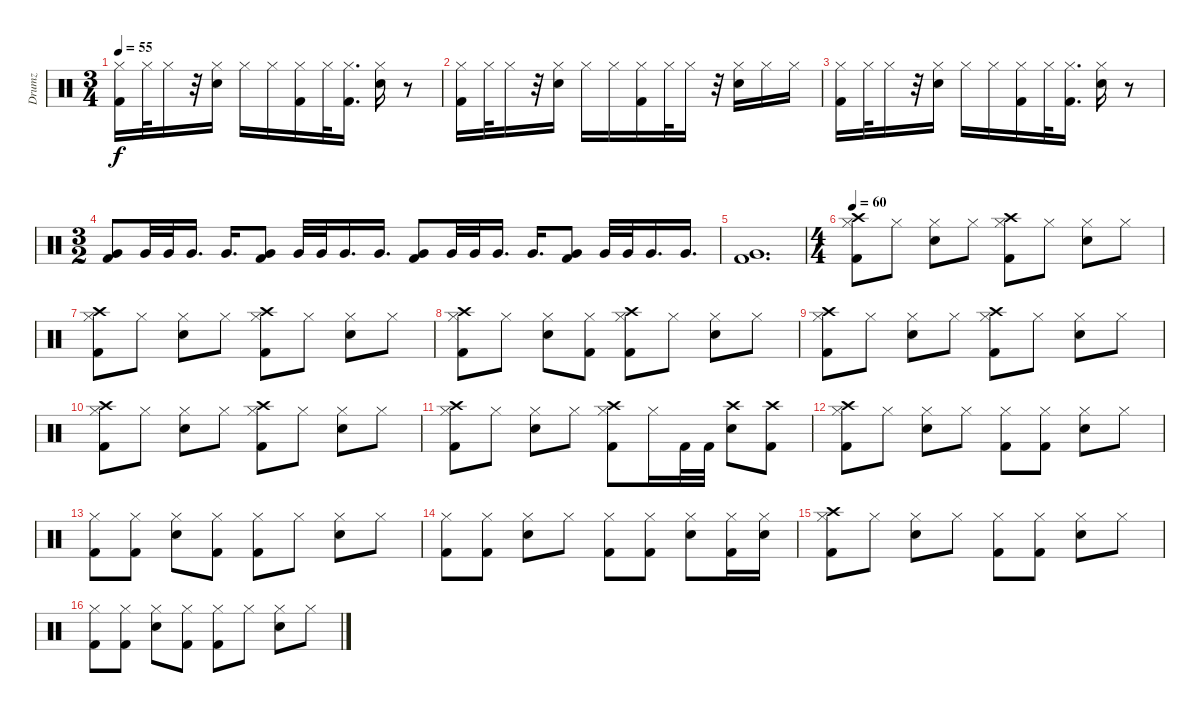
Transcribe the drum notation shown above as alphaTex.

\track ("Drumz" "Drumz") {instrument percussion}
\staff {score}
\articulation defaults
\ts (3 4)
\tempo 55
\clef neutral
\ks c
("Hi-Hat (closed)" "Kick (hit) 2").16{dy f} "Hi-Hat (closed)".32 "Hi-Hat (closed)".16 r.32 ("Hi-Hat (closed)" "Snare (hit) 2").16 "Hi-Hat (closed)".16 "Hi-Hat (closed)".16 ("Hi-Hat (closed)" "Kick (hit) 2").16 "Hi-Hat (closed)".32 ("Hi-Hat (closed)" "Kick (hit) 2").16{d} ("Hi-Hat (closed)" "Snare (hit) 2").16 r.8 |
("Hi-Hat (closed)" "Kick (hit) 2").16 "Hi-Hat (closed)".32 "Hi-Hat (closed)".16 r.32 ("Hi-Hat (closed)" "Snare (hit) 2").16 "Hi-Hat (closed)".16 "Hi-Hat (closed)".16 ("Hi-Hat (closed)" "Kick (hit) 2").16 "Hi-Hat (closed)".32 "Hi-Hat (closed)".16 r.32 ("Hi-Hat (closed)" "Snare (hit) 2").16 "Hi-Hat (closed)".16 "Hi-Hat (closed)".16 |
("Hi-Hat (closed)" "Kick (hit) 2").16 "Hi-Hat (closed)".32 "Hi-Hat (closed)".16 r.32 ("Hi-Hat (closed)" "Snare (hit) 2").16 "Hi-Hat (closed)".16 "Hi-Hat (closed)".16 ("Hi-Hat (closed)" "Kick (hit) 2").16 "Hi-Hat (closed)".32 ("Hi-Hat (closed)" "Kick (hit) 2").16{d} ("Hi-Hat (closed)" "Snare (hit) 2").16 r.8 |
\ts (3 2)
("Very Low Tom (hit)" "Kick (hit) 2").8 "Very Low Tom (hit)".32 "Very Low Tom (hit)".32 "Very Low Tom (hit)".16{d} "Very Low Tom (hit)".16{d} ("Very Low Tom (hit)" "Kick (hit) 2").8 "Very Low Tom (hit)".32 "Very Low Tom (hit)".32 "Very Low Tom (hit)".16{d} "Very Low Tom (hit)".16{d} ("Very Low Tom (hit)" "Kick (hit) 2").8 "Very Low Tom (hit)".32 "Very Low Tom (hit)".32 "Very Low Tom (hit)".16{d} "Very Low Tom (hit)".16{d} ("Very Low Tom (hit)" "Kick (hit) 2").8 "Very Low Tom (hit)".32 "Very Low Tom (hit)".32 "Very Low Tom (hit)".16{d} "Very Low Tom (hit)".16{d} |
("Very Low Tom (hit)" "Kick (hit) 2").1{d} |
\ts (4 4)
\tempo 60
("Hi-Hat (closed)" "Crash high (hit)" "Kick (hit) 2").8 "Hi-Hat (closed)".8 ("Hi-Hat (closed)" "Snare (hit) 2").8 "Hi-Hat (closed)".8 ("Hi-Hat (closed)" "Crash high (hit)" "Kick (hit) 2").8 "Hi-Hat (closed)".8 ("Hi-Hat (closed)" "Snare (hit) 2").8 "Hi-Hat (closed)".8 |
("Hi-Hat (closed)" "Crash high (hit)" "Kick (hit) 2").8 "Hi-Hat (closed)".8 ("Hi-Hat (closed)" "Snare (hit) 2").8 "Hi-Hat (closed)".8 ("Hi-Hat (closed)" "Crash high (hit)" "Kick (hit) 2").8 "Hi-Hat (closed)".8 ("Hi-Hat (closed)" "Snare (hit) 2").8 "Hi-Hat (closed)".8 |
("Hi-Hat (closed)" "Crash high (hit)" "Kick (hit) 2").8 "Hi-Hat (closed)".8 ("Hi-Hat (closed)" "Snare (hit) 2").8 ("Hi-Hat (closed)" "Kick (hit) 2").8 ("Hi-Hat (closed)" "Crash high (hit)" "Kick (hit) 2").8 "Hi-Hat (closed)".8 ("Hi-Hat (closed)" "Snare (hit) 2").8 "Hi-Hat (closed)".8 |
("Hi-Hat (closed)" "Crash high (hit)" "Kick (hit) 2").8 "Hi-Hat (closed)".8 ("Hi-Hat (closed)" "Snare (hit) 2").8 "Hi-Hat (closed)".8 ("Hi-Hat (closed)" "Crash high (hit)" "Kick (hit) 2").8 "Hi-Hat (closed)".8 ("Hi-Hat (closed)" "Snare (hit) 2").8 "Hi-Hat (closed)".8 |
("Hi-Hat (closed)" "Crash high (hit)" "Kick (hit) 2").8 "Hi-Hat (closed)".8 ("Hi-Hat (closed)" "Snare (hit) 2").8 "Hi-Hat (closed)".8 ("Hi-Hat (closed)" "Crash high (hit)" "Kick (hit) 2").8 "Hi-Hat (closed)".8 ("Hi-Hat (closed)" "Snare (hit) 2").8 "Hi-Hat (closed)".8 |
("Hi-Hat (closed)" "Crash high (hit)" "Kick (hit) 2").8 "Hi-Hat (closed)".8 ("Hi-Hat (closed)" "Snare (hit) 2").8 "Hi-Hat (closed)".8 ("Hi-Hat (closed)" "Crash high (hit)" "Kick (hit) 2").8 "Hi-Hat (closed)".16 "Kick (hit) 2".32 "Kick (hit) 2".32 ("Crash high (hit)" "Snare (hit) 2").8 ("Crash high (hit)" "Kick (hit) 2").8 |
("Hi-Hat (closed)" "Crash high (hit)" "Kick (hit) 2").8 "Hi-Hat (closed)".8 ("Hi-Hat (closed)" "Snare (hit) 2").8 "Hi-Hat (closed)".8 ("Hi-Hat (closed)" "Kick (hit) 2").8 ("Hi-Hat (closed)" "Kick (hit) 2").8 ("Hi-Hat (closed)" "Snare (hit) 2").8 "Hi-Hat (closed)".8 |
("Hi-Hat (closed)" "Kick (hit) 2").8 ("Hi-Hat (closed)" "Kick (hit) 2").8 ("Hi-Hat (closed)" "Snare (hit) 2").8 ("Hi-Hat (closed)" "Kick (hit) 2").8 ("Hi-Hat (closed)" "Kick (hit) 2").8 "Hi-Hat (closed)".8 ("Hi-Hat (closed)" "Snare (hit) 2").8 "Hi-Hat (closed)".8 |
("Hi-Hat (closed)" "Kick (hit) 2").8 ("Hi-Hat (closed)" "Kick (hit) 2").8 ("Hi-Hat (closed)" "Snare (hit) 2").8 "Hi-Hat (closed)".8 ("Hi-Hat (closed)" "Kick (hit) 2").8 ("Hi-Hat (closed)" "Kick (hit) 2").8 ("Hi-Hat (closed)" "Snare (hit) 2").8 ("Hi-Hat (closed)" "Kick (hit) 2").16 ("Hi-Hat (closed)" "Snare (hit) 2").16 |
("Hi-Hat (closed)" "Crash high (hit)" "Kick (hit) 2").8 "Hi-Hat (closed)".8 ("Hi-Hat (closed)" "Snare (hit) 2").8 "Hi-Hat (closed)".8 ("Hi-Hat (closed)" "Kick (hit) 2").8 ("Hi-Hat (closed)" "Kick (hit) 2").8 ("Hi-Hat (closed)" "Snare (hit) 2").8 "Hi-Hat (closed)".8 |
("Hi-Hat (closed)" "Kick (hit) 2").8 ("Hi-Hat (closed)" "Kick (hit) 2").8 ("Hi-Hat (closed)" "Snare (hit) 2").8 ("Hi-Hat (closed)" "Kick (hit) 2").8 ("Hi-Hat (closed)" "Kick (hit) 2").8 "Hi-Hat (closed)".8 ("Hi-Hat (closed)" "Snare (hit) 2").8 "Hi-Hat (closed)".8
